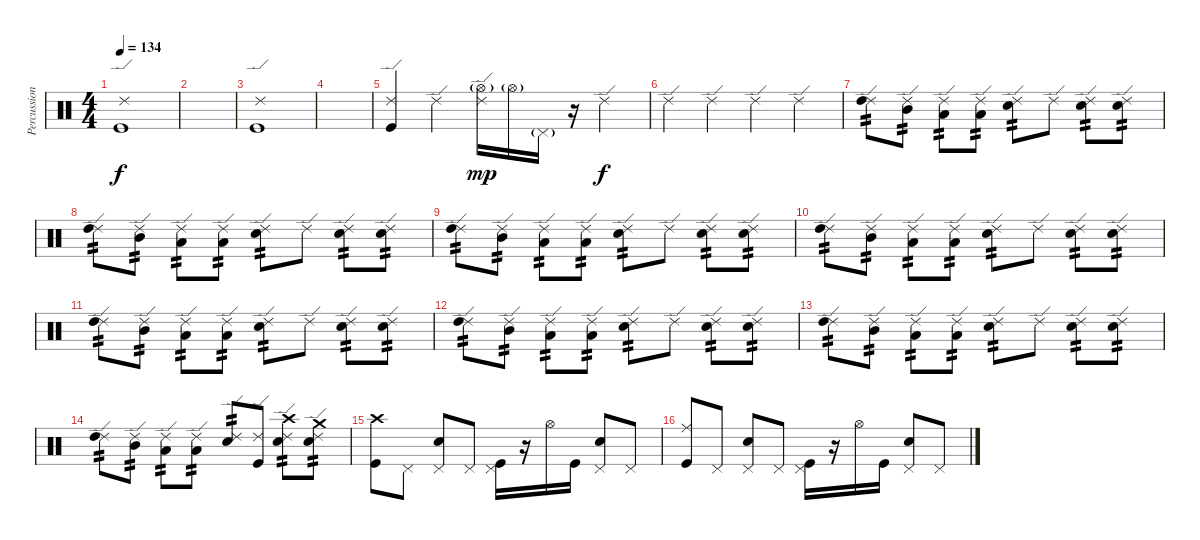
\track ("Percussion" "Percussion") {instrument percussion}
\staff {score}
\articulation defaults
\ts (4 4)
\tempo 134
\clef neutral
\ks c
("Kick (hit)" "Ride (edge) 2").1{dy f} |
|
("Kick (hit)" "Ride (edge) 2").1 |
|
("Kick (hit)" "Ride (edge) 2").4 "Ride (edge) 2".4 ("Ride (edge) 2" "Hi-Hat (open)"{g}).16{dy mp} "Hi-Hat (open)"{g}.16 "Pedal Hi-Hat (hit)"{g}.16 r.16 "Ride (edge) 2".4{dy f} |
"Ride (edge) 2".4 "Ride (edge) 2".4 "Ride (edge) 2".4 "Ride (edge) 2".4 |
("Ride (edge) 2" "High Tom (hit)").8{tp 2} ("Ride (edge) 2" "Mid Tom (hit)").8{tp 2} ("Ride (edge) 2" "Low Tom (hit)").8{tp 2} ("Ride (edge) 2" "Low Floor Tom (hit)").8{tp 2} ("Ride (edge) 2" "Electric Snare (hit)").8{tp 2} "Ride (edge) 2".8 ("Ride (edge) 2" "Electric Snare (hit)").8{tp 2} ("Ride (edge) 2" "Electric Snare (hit)").8{tp 2} |
("Ride (edge) 2" "High Tom (hit)").8{tp 2} ("Ride (edge) 2" "Mid Tom (hit)").8{tp 2} ("Ride (edge) 2" "Low Tom (hit)").8{tp 2} ("Ride (edge) 2" "Low Floor Tom (hit)").8{tp 2} ("Ride (edge) 2" "Electric Snare (hit)").8{tp 2} "Ride (edge) 2".8 ("Ride (edge) 2" "Electric Snare (hit)").8{tp 2} ("Ride (edge) 2" "Electric Snare (hit)").8{tp 2} |
("Ride (edge) 2" "High Tom (hit)").8{tp 2} ("Ride (edge) 2" "Mid Tom (hit)").8{tp 2} ("Ride (edge) 2" "Low Tom (hit)").8{tp 2} ("Ride (edge) 2" "Low Floor Tom (hit)").8{tp 2} ("Ride (edge) 2" "Electric Snare (hit)").8{tp 2} "Ride (edge) 2".8 ("Ride (edge) 2" "Electric Snare (hit)").8{tp 2} ("Ride (edge) 2" "Electric Snare (hit)").8{tp 2} |
("Ride (edge) 2" "High Tom (hit)").8{tp 2} ("Ride (edge) 2" "Mid Tom (hit)").8{tp 2} ("Ride (edge) 2" "Low Tom (hit)").8{tp 2} ("Ride (edge) 2" "Low Floor Tom (hit)").8{tp 2} ("Ride (edge) 2" "Electric Snare (hit)").8{tp 2} "Ride (edge) 2".8 ("Ride (edge) 2" "Electric Snare (hit)").8{tp 2} ("Ride (edge) 2" "Electric Snare (hit)").8{tp 2} |
("Ride (edge) 2" "High Tom (hit)").8{tp 2} ("Ride (edge) 2" "Mid Tom (hit)").8{tp 2} ("Ride (edge) 2" "Low Tom (hit)").8{tp 2} ("Ride (edge) 2" "Low Floor Tom (hit)").8{tp 2} ("Ride (edge) 2" "Electric Snare (hit)").8{tp 2} "Ride (edge) 2".8 ("Ride (edge) 2" "Electric Snare (hit)").8{tp 2} ("Ride (edge) 2" "Electric Snare (hit)").8{tp 2} |
("Ride (edge) 2" "High Tom (hit)").8{tp 2} ("Ride (edge) 2" "Mid Tom (hit)").8{tp 2} ("Ride (edge) 2" "Low Tom (hit)").8{tp 2} ("Ride (edge) 2" "Low Floor Tom (hit)").8{tp 2} ("Ride (edge) 2" "Electric Snare (hit)").8{tp 2} "Ride (edge) 2".8 ("Ride (edge) 2" "Electric Snare (hit)").8{tp 2} ("Ride (edge) 2" "Electric Snare (hit)").8{tp 2} |
("Ride (edge) 2" "High Tom (hit)").8{tp 2} ("Ride (edge) 2" "Mid Tom (hit)").8{tp 2} ("Ride (edge) 2" "Low Tom (hit)").8{tp 2} ("Ride (edge) 2" "Low Floor Tom (hit)").8{tp 2} ("Ride (edge) 2" "Electric Snare (hit)").8{tp 2} "Ride (edge) 2".8 ("Ride (edge) 2" "Electric Snare (hit)").8{tp 2} ("Ride (edge) 2" "Electric Snare (hit)").8{tp 2} |
("Ride (edge) 2" "High Tom (hit)").8{tp 2} ("Ride (edge) 2" "Mid Tom (hit)").8{tp 2} ("Ride (edge) 2" "Low Tom (hit)").8{tp 2} ("Ride (edge) 2" "Low Floor Tom (hit)").8{tp 2} ("Ride (edge) 2" "Electric Snare (hit)").8{tp 2} ("Ride (edge) 2" "Kick (hit)").8 ("Crash high (hit)" "Ride (edge) 2" "Electric Snare (hit)").8{tp 2} ("Crash medium (hit)" "Ride (edge) 2" "Electric Snare (hit)").8{tp 2} |
("Crash high (hit)" "Kick (hit)").8 "Pedal Hi-Hat (hit)".8 ("Pedal Hi-Hat (hit)" "Electric Snare (hit)").8 "Pedal Hi-Hat (hit)".8 ("Pedal Hi-Hat (hit)" "Kick (hit)").16 r.16 "Hi-Hat (open)".16 "Kick (hit)".16 ("Pedal Hi-Hat (hit)" "Electric Snare (hit)").8 "Pedal Hi-Hat (hit)".8 |
("Ride (middle)" "Kick (hit)").8 "Pedal Hi-Hat (hit)".8 ("Pedal Hi-Hat (hit)" "Electric Snare (hit)").8 "Pedal Hi-Hat (hit)".8 ("Pedal Hi-Hat (hit)" "Kick (hit)").16 r.16 "Hi-Hat (open)".16 "Kick (hit)".16 ("Pedal Hi-Hat (hit)" "Electric Snare (hit)").8 "Pedal Hi-Hat (hit)".8
